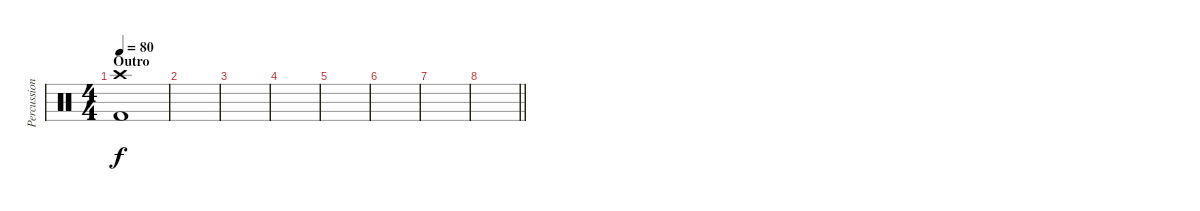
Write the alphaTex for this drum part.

\track ("Percussion" "Percussion") {instrument percussion}
\staff {score}
\articulation defaults
\ts (4 4)
\section ("" "Outro")
\tempo 80
\clef neutral
\ks c
("Crash high (hit)" "Kick (hit) 2").1{dy f} |
|
|
|
|
|
|
\barLineRight lightlight
